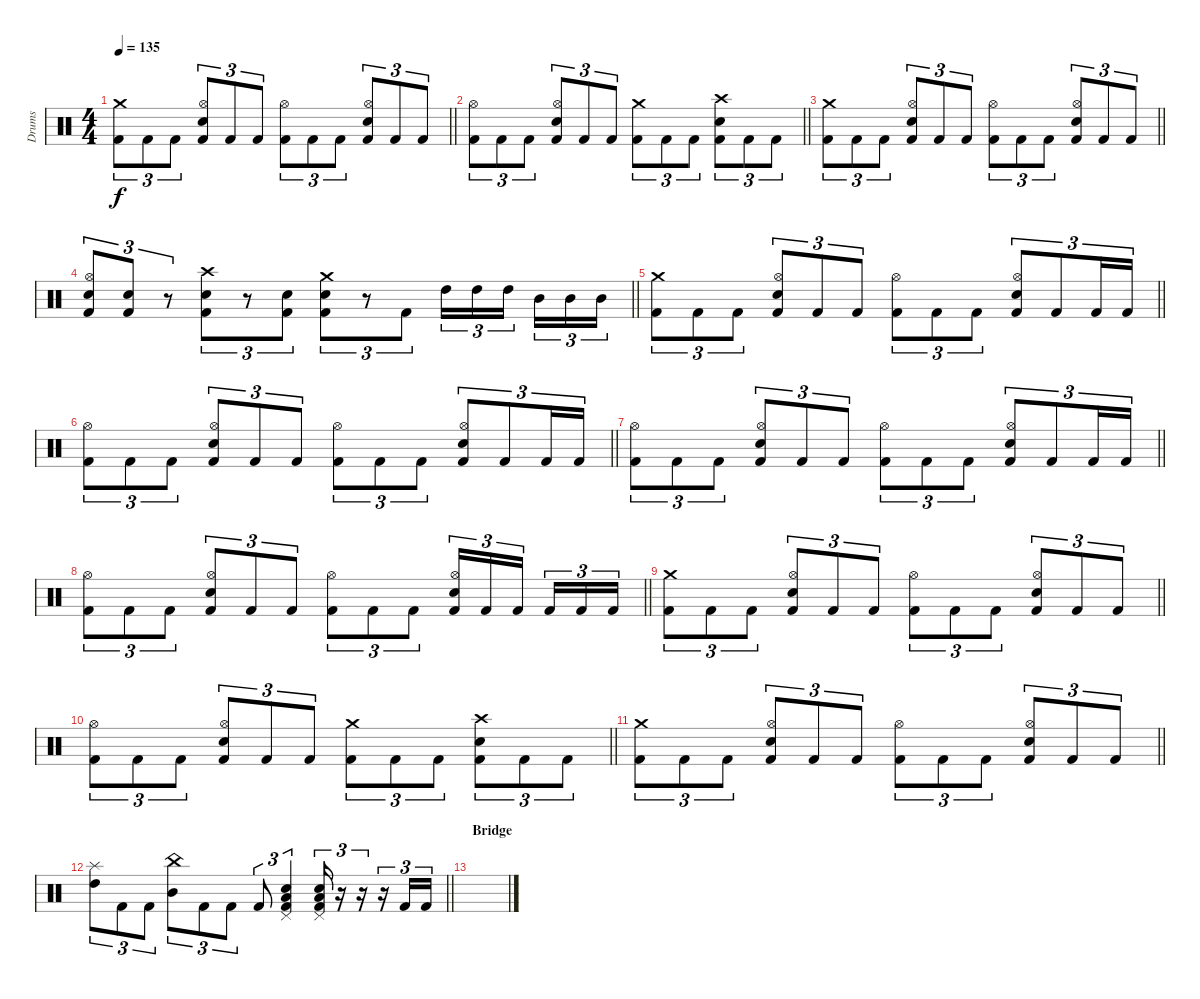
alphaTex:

\track ("Drums" "Drums") {instrument percussion}
\staff {score}
\articulation defaults
\ts (4 4)
\tempo 135
\clef neutral
\barLineRight lightlight
\ks c
("Crash medium (hit)" "Kick (hit) 2").8{tu (3 2) dy f} "Kick (hit) 2".8{tu (3 2)} "Kick (hit) 2".8{tu (3 2)} ("Hi-Hat (open)" "Snare (hit) 2" "Kick (hit) 2").8{tu (3 2)} "Kick (hit) 2".8{tu (3 2)} "Kick (hit) 2".8{tu (3 2)} ("Hi-Hat (open)" "Kick (hit) 2").8{tu (3 2)} "Kick (hit) 2".8{tu (3 2)} "Kick (hit) 2".8{tu (3 2)} ("Hi-Hat (open)" "Snare (hit) 2" "Kick (hit) 2").8{tu (3 2)} "Kick (hit) 2".8{tu (3 2)} "Kick (hit) 2".8{tu (3 2)} |
\barLineRight lightlight
("Hi-Hat (open)" "Kick (hit) 2").8{tu (3 2)} "Kick (hit) 2".8{tu (3 2)} "Kick (hit) 2".8{tu (3 2)} ("Hi-Hat (open)" "Snare (hit) 2" "Kick (hit) 2").8{tu (3 2)} "Kick (hit) 2".8{tu (3 2)} "Kick (hit) 2".8{tu (3 2)} ("Crash medium (hit)" "Kick (hit) 2").8{tu (3 2)} "Kick (hit) 2".8{tu (3 2)} "Kick (hit) 2".8{tu (3 2)} ("Crash high (hit)" "Snare (hit) 2" "Kick (hit) 2").8{tu (3 2)} "Kick (hit) 2".8{tu (3 2)} "Kick (hit) 2".8{tu (3 2)} |
\barLineRight lightlight
("Crash medium (hit)" "Kick (hit) 2").8{tu (3 2)} "Kick (hit) 2".8{tu (3 2)} "Kick (hit) 2".8{tu (3 2)} ("Hi-Hat (open)" "Snare (hit) 2" "Kick (hit) 2").8{tu (3 2)} "Kick (hit) 2".8{tu (3 2)} "Kick (hit) 2".8{tu (3 2)} ("Hi-Hat (open)" "Kick (hit) 2").8{tu (3 2)} "Kick (hit) 2".8{tu (3 2)} "Kick (hit) 2".8{tu (3 2)} ("Hi-Hat (open)" "Snare (hit) 2" "Kick (hit) 2").8{tu (3 2)} "Kick (hit) 2".8{tu (3 2)} "Kick (hit) 2".8{tu (3 2)} |
\barLineRight lightlight
("Hi-Hat (open)" "Snare (hit) 2" "Kick (hit) 2").8{tu (3 2)} ("Snare (hit) 2" "Kick (hit) 2").8{tu (3 2)} r.8{tu (3 2)} ("Crash high (hit)" "Snare (hit) 2" "Kick (hit) 2").8{tu (3 2)} r.8{tu (3 2)} ("Snare (hit) 2" "Kick (hit) 2").8{tu (3 2)} ("Crash medium (hit)" "Snare (hit) 2" "Kick (hit) 2").8{tu (3 2)} r.8{tu (3 2)} "Kick (hit) 2".8{tu (3 2)} "High Tom (hit)".16{tu (3 2)} "High Tom (hit)".16{tu (3 2)} "High Tom (hit)".16{tu (3 2) beam splitsecondary} "Mid Tom (hit)".16{tu (3 2)} "Mid Tom (hit)".16{tu (3 2)} "Mid Tom (hit)".16{tu (3 2)} |
\barLineRight lightlight
("Crash medium (hit)" "Kick (hit) 2").8{tu (3 2)} "Kick (hit) 2".8{tu (3 2)} "Kick (hit) 2".8{tu (3 2)} ("Hi-Hat (open)" "Snare (hit) 2" "Kick (hit) 2").8{tu (3 2)} "Kick (hit) 2".8{tu (3 2)} "Kick (hit) 2".8{tu (3 2)} ("Hi-Hat (open)" "Kick (hit) 2").8{tu (3 2)} "Kick (hit) 2".8{tu (3 2)} "Kick (hit) 2".8{tu (3 2)} ("Hi-Hat (open)" "Snare (hit) 2" "Kick (hit) 2").8{tu (3 2)} "Kick (hit) 2".8{tu (3 2)} "Kick (hit) 2".16{tu (3 2)} "Kick (hit) 2".16{tu (3 2)} |
\barLineRight lightlight
("Hi-Hat (open)" "Kick (hit) 2").8{tu (3 2)} "Kick (hit) 2".8{tu (3 2)} "Kick (hit) 2".8{tu (3 2)} ("Hi-Hat (open)" "Snare (hit) 2" "Kick (hit) 2").8{tu (3 2)} "Kick (hit) 2".8{tu (3 2)} "Kick (hit) 2".8{tu (3 2)} ("Hi-Hat (open)" "Kick (hit) 2").8{tu (3 2)} "Kick (hit) 2".8{tu (3 2)} "Kick (hit) 2".8{tu (3 2)} ("Hi-Hat (open)" "Snare (hit) 2" "Kick (hit) 2").8{tu (3 2)} "Kick (hit) 2".8{tu (3 2)} "Kick (hit) 2".16{tu (3 2)} "Kick (hit) 2".16{tu (3 2)} |
\barLineRight lightlight
("Hi-Hat (open)" "Kick (hit) 2").8{tu (3 2)} "Kick (hit) 2".8{tu (3 2)} "Kick (hit) 2".8{tu (3 2)} ("Hi-Hat (open)" "Snare (hit) 2" "Kick (hit) 2").8{tu (3 2)} "Kick (hit) 2".8{tu (3 2)} "Kick (hit) 2".8{tu (3 2)} ("Hi-Hat (open)" "Kick (hit) 2").8{tu (3 2)} "Kick (hit) 2".8{tu (3 2)} "Kick (hit) 2".8{tu (3 2)} ("Hi-Hat (open)" "Snare (hit) 2" "Kick (hit) 2").8{tu (3 2)} "Kick (hit) 2".8{tu (3 2)} "Kick (hit) 2".16{tu (3 2)} "Kick (hit) 2".16{tu (3 2)} |
\barLineRight lightlight
("Hi-Hat (open)" "Kick (hit) 2").8{tu (3 2)} "Kick (hit) 2".8{tu (3 2)} "Kick (hit) 2".8{tu (3 2)} ("Hi-Hat (open)" "Snare (hit) 2" "Kick (hit) 2").8{tu (3 2)} "Kick (hit) 2".8{tu (3 2)} "Kick (hit) 2".8{tu (3 2)} ("Hi-Hat (open)" "Kick (hit) 2").8{tu (3 2)} "Kick (hit) 2".8{tu (3 2)} "Kick (hit) 2".8{tu (3 2)} ("Hi-Hat (open)" "Snare (hit) 2" "Kick (hit) 2").16{tu (3 2)} "Kick (hit) 2".16{tu (3 2)} "Kick (hit) 2".16{tu (3 2) beam splitsecondary} "Kick (hit) 2".16{tu (3 2)} "Kick (hit) 2".16{tu (3 2)} "Kick (hit) 2".16{tu (3 2)} |
\barLineRight lightlight
("Crash medium (hit)" "Kick (hit) 2").8{tu (3 2)} "Kick (hit) 2".8{tu (3 2)} "Kick (hit) 2".8{tu (3 2)} ("Hi-Hat (open)" "Snare (hit) 2" "Kick (hit) 2").8{tu (3 2)} "Kick (hit) 2".8{tu (3 2)} "Kick (hit) 2".8{tu (3 2)} ("Hi-Hat (open)" "Kick (hit) 2").8{tu (3 2)} "Kick (hit) 2".8{tu (3 2)} "Kick (hit) 2".8{tu (3 2)} ("Hi-Hat (open)" "Snare (hit) 2" "Kick (hit) 2").8{tu (3 2)} "Kick (hit) 2".8{tu (3 2)} "Kick (hit) 2".8{tu (3 2)} |
\barLineRight lightlight
("Hi-Hat (open)" "Kick (hit) 2").8{tu (3 2)} "Kick (hit) 2".8{tu (3 2)} "Kick (hit) 2".8{tu (3 2)} ("Hi-Hat (open)" "Snare (hit) 2" "Kick (hit) 2").8{tu (3 2)} "Kick (hit) 2".8{tu (3 2)} "Kick (hit) 2".8{tu (3 2)} ("Crash medium (hit)" "Kick (hit) 2").8{tu (3 2)} "Kick (hit) 2".8{tu (3 2)} "Kick (hit) 2".8{tu (3 2)} ("Crash high (hit)" "Snare (hit) 2" "Kick (hit) 2").8{tu (3 2)} "Kick (hit) 2".8{tu (3 2)} "Kick (hit) 2".8{tu (3 2)} |
\barLineRight lightlight
("Crash medium (hit)" "Kick (hit) 2").8{tu (3 2)} "Kick (hit) 2".8{tu (3 2)} "Kick (hit) 2".8{tu (3 2)} ("Hi-Hat (open)" "Snare (hit) 2" "Kick (hit) 2").8{tu (3 2)} "Kick (hit) 2".8{tu (3 2)} "Kick (hit) 2".8{tu (3 2)} ("Hi-Hat (open)" "Kick (hit) 2").8{tu (3 2)} "Kick (hit) 2".8{tu (3 2)} "Kick (hit) 2".8{tu (3 2)} ("Hi-Hat (open)" "Snare (hit) 2" "Kick (hit) 2").8{tu (3 2)} "Kick (hit) 2".8{tu (3 2)} "Kick (hit) 2".8{tu (3 2)} |
\barLineRight lightlight
("Splash (hit)" "High Tom (hit)").8{tu (3 2)} "Kick (hit) 2".8{tu (3 2)} "Kick (hit) 2".8{tu (3 2)} ("China (hit)" "Mid Tom (hit)").8{tu (3 2)} "Kick (hit) 2".8{tu (3 2)} "Kick (hit) 2".8{tu (3 2)} "Kick (hit) 2".8{tu (3 2)} ("Pedal Hi-Hat (hit)" "Low Tom (hit)" "Snare (hit) 2" "Kick (hit) 2").4{tu (3 2)} ("Pedal Hi-Hat (hit)" "Low Tom (hit)" "Snare (hit) 2" "Kick (hit) 2").16{tu (3 2)} r.16{tu (3 2)} r.16{tu (3 2)} r.16{tu (3 2)} "Kick (hit) 2".16{tu (3 2)} "Kick (hit) 2".16{tu (3 2)} |
\section ("" "Bridge")
